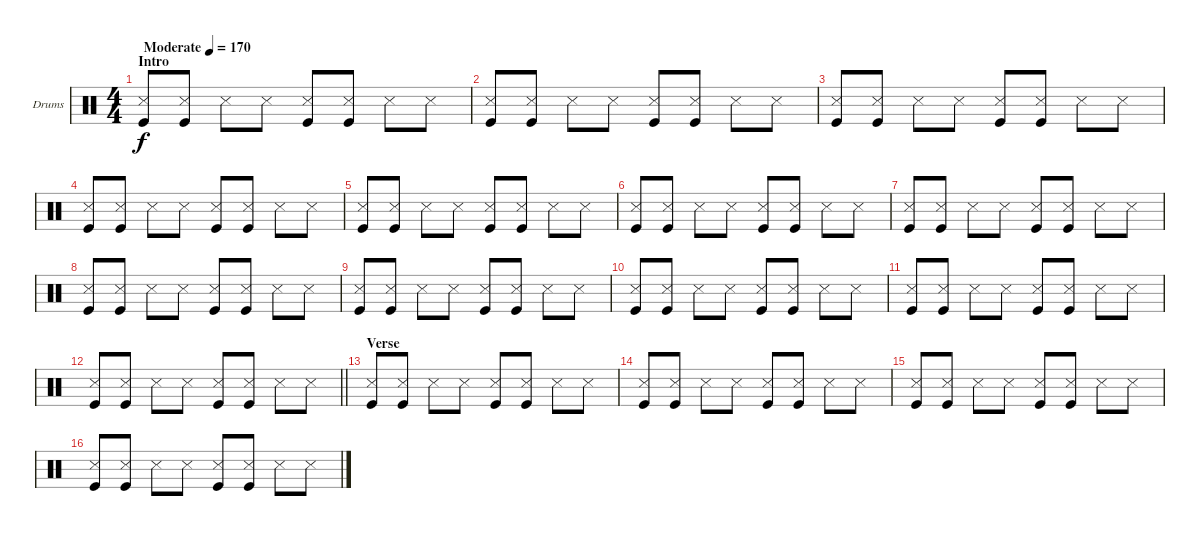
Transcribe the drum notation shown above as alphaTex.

\bracketExtendMode groupsimilarinstruments
\firstSystemTrackNameOrientation horizontal
\otherSystemsTrackNameOrientation horizontal
\track ("Drumkit" "Drums") {instrument percussion}
\staff {score}
\articulation defaults
\ts (4 4)
\beaming (8 2 2 2 2)
\section ("" "Intro")
\tempo (170 "Moderate")
\clef neutral
\ks c
("Snare (side stick) 3" "Kick (hit)").8{dy f} ("Snare (side stick) 3" "Kick (hit)").8 "Snare (side stick) 3".8 "Snare (side stick) 3".8 ("Snare (side stick) 3" "Kick (hit)").8 ("Snare (side stick) 3" "Kick (hit)").8 "Snare (side stick) 3".8 "Snare (side stick) 3".8 |
("Snare (side stick) 3" "Kick (hit)").8 ("Snare (side stick) 3" "Kick (hit)").8 "Snare (side stick) 3".8 "Snare (side stick) 3".8 ("Snare (side stick) 3" "Kick (hit)").8 ("Snare (side stick) 3" "Kick (hit)").8 "Snare (side stick) 3".8 "Snare (side stick) 3".8 |
("Snare (side stick) 3" "Kick (hit)").8 ("Snare (side stick) 3" "Kick (hit)").8 "Snare (side stick) 3".8 "Snare (side stick) 3".8 ("Snare (side stick) 3" "Kick (hit)").8 ("Snare (side stick) 3" "Kick (hit)").8 "Snare (side stick) 3".8 "Snare (side stick) 3".8 |
("Snare (side stick) 3" "Kick (hit)").8 ("Snare (side stick) 3" "Kick (hit)").8 "Snare (side stick) 3".8 "Snare (side stick) 3".8 ("Snare (side stick) 3" "Kick (hit)").8 ("Snare (side stick) 3" "Kick (hit)").8 "Snare (side stick) 3".8 "Snare (side stick) 3".8 |
("Snare (side stick) 3" "Kick (hit)").8 ("Snare (side stick) 3" "Kick (hit)").8 "Snare (side stick) 3".8 "Snare (side stick) 3".8 ("Snare (side stick) 3" "Kick (hit)").8 ("Snare (side stick) 3" "Kick (hit)").8 "Snare (side stick) 3".8 "Snare (side stick) 3".8 |
("Snare (side stick) 3" "Kick (hit)").8 ("Snare (side stick) 3" "Kick (hit)").8 "Snare (side stick) 3".8 "Snare (side stick) 3".8 ("Snare (side stick) 3" "Kick (hit)").8 ("Snare (side stick) 3" "Kick (hit)").8 "Snare (side stick) 3".8 "Snare (side stick) 3".8 |
("Snare (side stick) 3" "Kick (hit)").8 ("Snare (side stick) 3" "Kick (hit)").8 "Snare (side stick) 3".8 "Snare (side stick) 3".8 ("Snare (side stick) 3" "Kick (hit)").8 ("Snare (side stick) 3" "Kick (hit)").8 "Snare (side stick) 3".8 "Snare (side stick) 3".8 |
("Snare (side stick) 3" "Kick (hit)").8 ("Snare (side stick) 3" "Kick (hit)").8 "Snare (side stick) 3".8 "Snare (side stick) 3".8 ("Snare (side stick) 3" "Kick (hit)").8 ("Snare (side stick) 3" "Kick (hit)").8 "Snare (side stick) 3".8 "Snare (side stick) 3".8 |
("Snare (side stick) 3" "Kick (hit)").8 ("Snare (side stick) 3" "Kick (hit)").8 "Snare (side stick) 3".8 "Snare (side stick) 3".8 ("Snare (side stick) 3" "Kick (hit)").8 ("Snare (side stick) 3" "Kick (hit)").8 "Snare (side stick) 3".8 "Snare (side stick) 3".8 |
("Snare (side stick) 3" "Kick (hit)").8 ("Snare (side stick) 3" "Kick (hit)").8 "Snare (side stick) 3".8 "Snare (side stick) 3".8 ("Snare (side stick) 3" "Kick (hit)").8 ("Snare (side stick) 3" "Kick (hit)").8 "Snare (side stick) 3".8 "Snare (side stick) 3".8 |
("Snare (side stick) 3" "Kick (hit)").8 ("Snare (side stick) 3" "Kick (hit)").8 "Snare (side stick) 3".8 "Snare (side stick) 3".8 ("Snare (side stick) 3" "Kick (hit)").8 ("Snare (side stick) 3" "Kick (hit)").8 "Snare (side stick) 3".8 "Snare (side stick) 3".8 |
\barLineRight lightlight
("Snare (side stick) 3" "Kick (hit)").8 ("Snare (side stick) 3" "Kick (hit)").8 "Snare (side stick) 3".8 "Snare (side stick) 3".8 ("Snare (side stick) 3" "Kick (hit)").8 ("Snare (side stick) 3" "Kick (hit)").8 "Snare (side stick) 3".8 "Snare (side stick) 3".8 |
\section ("" "Verse")
("Snare (side stick) 3" "Kick (hit)").8 ("Snare (side stick) 3" "Kick (hit)").8 "Snare (side stick) 3".8 "Snare (side stick) 3".8 ("Snare (side stick) 3" "Kick (hit)").8 ("Snare (side stick) 3" "Kick (hit)").8 "Snare (side stick) 3".8 "Snare (side stick) 3".8 |
("Snare (side stick) 3" "Kick (hit)").8 ("Snare (side stick) 3" "Kick (hit)").8 "Snare (side stick) 3".8 "Snare (side stick) 3".8 ("Snare (side stick) 3" "Kick (hit)").8 ("Snare (side stick) 3" "Kick (hit)").8 "Snare (side stick) 3".8 "Snare (side stick) 3".8 |
("Snare (side stick) 3" "Kick (hit)").8 ("Snare (side stick) 3" "Kick (hit)").8 "Snare (side stick) 3".8 "Snare (side stick) 3".8 ("Snare (side stick) 3" "Kick (hit)").8 ("Snare (side stick) 3" "Kick (hit)").8 "Snare (side stick) 3".8 "Snare (side stick) 3".8 |
("Snare (side stick) 3" "Kick (hit)").8 ("Snare (side stick) 3" "Kick (hit)").8 "Snare (side stick) 3".8 "Snare (side stick) 3".8 ("Snare (side stick) 3" "Kick (hit)").8 ("Snare (side stick) 3" "Kick (hit)").8 "Snare (side stick) 3".8 "Snare (side stick) 3".8
